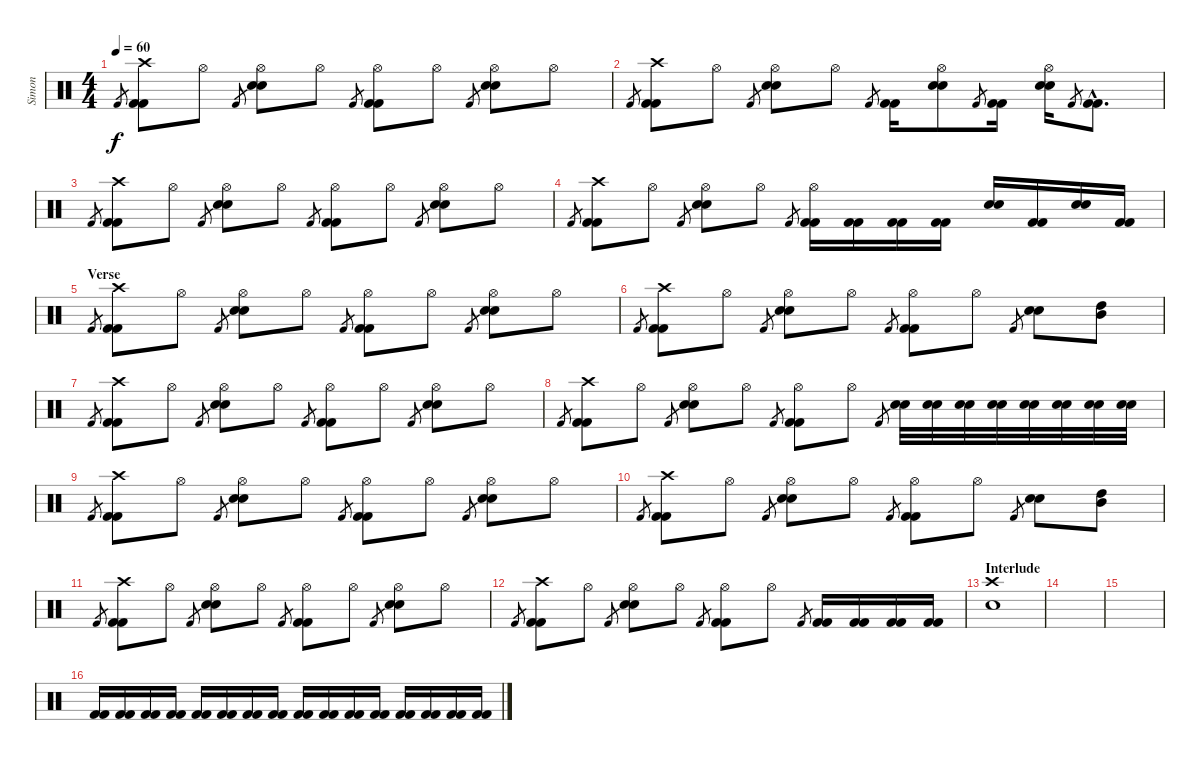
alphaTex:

\track ("Simon" "Simon") {instrument percussion}
\staff {score}
\articulation defaults
\ts (4 4)
\tempo 60
\clef neutral
\ks c "Kick (hit) 2".8{gr dy f}
("Crash high (hit)" "Kick (hit) 2" "Kick (hit) 2").8 "Hi-Hat (open)".8 "Kick (hit) 2".8{gr} ("Hi-Hat (open)" "Electric Snare (hit)" "Electric Snare (hit)").8 "Hi-Hat (open)".8 "Kick (hit) 2".8{gr} ("Hi-Hat (open)" "Kick (hit) 2" "Kick (hit) 2").8 "Hi-Hat (open)".8 "Kick (hit) 2".8{gr} ("Hi-Hat (open)" "Electric Snare (hit)" "Electric Snare (hit)").8 "Hi-Hat (open)".8 |
"Kick (hit) 2".8{gr} ("Crash high (hit)" "Kick (hit) 2" "Kick (hit) 2").8 "Hi-Hat (open)".8 "Kick (hit) 2".8{gr} ("Hi-Hat (open)" "Electric Snare (hit)" "Electric Snare (hit)").8 "Hi-Hat (open)".8 "Kick (hit) 2".8{gr} ("Kick (hit) 2" "Kick (hit) 2").16 ("Hi-Hat (open)" "Electric Snare (hit)" "Electric Snare (hit)").8 "Kick (hit) 2".8{gr} ("Kick (hit) 2" "Kick (hit) 2").16 ("Hi-Hat (open)" "Electric Snare (hit)" "Electric Snare (hit)").16 "Kick (hit) 2".8{gr} ("Kick (hit) 2"{hac} "Kick (hit) 2"{hac}).8{d} |
"Kick (hit) 2".8{gr} ("Crash high (hit)" "Kick (hit) 2" "Kick (hit) 2").8 "Hi-Hat (open)".8 "Kick (hit) 2".8{gr} ("Hi-Hat (open)" "Electric Snare (hit)" "Electric Snare (hit)").8 "Hi-Hat (open)".8 "Kick (hit) 2".8{gr} ("Hi-Hat (open)" "Kick (hit) 2" "Kick (hit) 2").8 "Hi-Hat (open)".8 "Kick (hit) 2".8{gr} ("Hi-Hat (open)" "Electric Snare (hit)" "Electric Snare (hit)").8 "Hi-Hat (open)".8 |
"Kick (hit) 2".8{gr} ("Crash high (hit)" "Kick (hit) 2" "Kick (hit) 2").8 "Hi-Hat (open)".8 "Kick (hit) 2".8{gr} ("Hi-Hat (open)" "Electric Snare (hit)" "Electric Snare (hit)").8 "Hi-Hat (open)".8 "Kick (hit) 2".8{gr} ("Hi-Hat (open)" "Kick (hit) 2" "Kick (hit) 2").16 ("Kick (hit) 2" "Kick (hit) 2").16 ("Kick (hit) 2" "Kick (hit) 2").16 ("Kick (hit) 2" "Kick (hit) 2").16 ("Electric Snare (hit)" "Electric Snare (hit)").16 ("Kick (hit) 2" "Kick (hit) 2").16 ("Electric Snare (hit)" "Electric Snare (hit)").16 ("Kick (hit) 2" "Kick (hit) 2").16 |
\section ("" "Verse")
"Kick (hit) 2".8{gr} ("Crash high (hit)" "Kick (hit) 2" "Kick (hit) 2").8 "Hi-Hat (open)".8 "Kick (hit) 2".8{gr} ("Hi-Hat (open)" "Electric Snare (hit)" "Electric Snare (hit)").8 "Hi-Hat (open)".8 "Kick (hit) 2".8{gr} ("Hi-Hat (open)" "Kick (hit) 2" "Kick (hit) 2").8 "Hi-Hat (open)".8 "Kick (hit) 2".8{gr} ("Hi-Hat (open)" "Electric Snare (hit)" "Electric Snare (hit)").8 "Hi-Hat (open)".8 |
"Kick (hit) 2".8{gr} ("Crash high (hit)" "Kick (hit) 2" "Kick (hit) 2").8 "Hi-Hat (open)".8 "Kick (hit) 2".8{gr} ("Hi-Hat (open)" "Electric Snare (hit)" "Electric Snare (hit)").8 "Hi-Hat (open)".8 "Kick (hit) 2".8{gr} ("Hi-Hat (open)" "Kick (hit) 2" "Kick (hit) 2").8 "Hi-Hat (open)".8 "Kick (hit) 2".8{gr} ("Electric Snare (hit)" "Electric Snare (hit)").8 ("High Tom (hit)" "Mid Tom (hit)").8 |
"Kick (hit) 2".8{gr} ("Crash high (hit)" "Kick (hit) 2" "Kick (hit) 2").8 "Hi-Hat (open)".8 "Kick (hit) 2".8{gr} ("Hi-Hat (open)" "Electric Snare (hit)" "Electric Snare (hit)").8 "Hi-Hat (open)".8 "Kick (hit) 2".8{gr} ("Hi-Hat (open)" "Kick (hit) 2" "Kick (hit) 2").8 "Hi-Hat (open)".8 "Kick (hit) 2".8{gr} ("Hi-Hat (open)" "Electric Snare (hit)" "Electric Snare (hit)").8 "Hi-Hat (open)".8 |
"Kick (hit) 2".8{gr} ("Crash high (hit)" "Kick (hit) 2" "Kick (hit) 2").8 "Hi-Hat (open)".8 "Kick (hit) 2".8{gr} ("Hi-Hat (open)" "Electric Snare (hit)" "Electric Snare (hit)").8 "Hi-Hat (open)".8 "Kick (hit) 2".8{gr} ("Hi-Hat (open)" "Kick (hit) 2" "Kick (hit) 2").8 "Hi-Hat (open)".8 "Kick (hit) 2".8{gr} ("Electric Snare (hit)" "Electric Snare (hit)").32 ("Electric Snare (hit)" "Electric Snare (hit)").32 ("Electric Snare (hit)" "Electric Snare (hit)").32 ("Electric Snare (hit)" "Electric Snare (hit)").32 ("Electric Snare (hit)" "Electric Snare (hit)").32 ("Electric Snare (hit)" "Electric Snare (hit)").32 ("Electric Snare (hit)" "Electric Snare (hit)").32 ("Electric Snare (hit)" "Electric Snare (hit)").32 |
"Kick (hit) 2".8{gr} ("Crash high (hit)" "Kick (hit) 2" "Kick (hit) 2").8 "Hi-Hat (open)".8 "Kick (hit) 2".8{gr} ("Hi-Hat (open)" "Electric Snare (hit)" "Electric Snare (hit)").8 "Hi-Hat (open)".8 "Kick (hit) 2".8{gr} ("Hi-Hat (open)" "Kick (hit) 2" "Kick (hit) 2").8 "Hi-Hat (open)".8 "Kick (hit) 2".8{gr} ("Hi-Hat (open)" "Electric Snare (hit)" "Electric Snare (hit)").8 "Hi-Hat (open)".8 |
"Kick (hit) 2".8{gr} ("Crash high (hit)" "Kick (hit) 2" "Kick (hit) 2").8 "Hi-Hat (open)".8 "Kick (hit) 2".8{gr} ("Hi-Hat (open)" "Electric Snare (hit)" "Electric Snare (hit)").8 "Hi-Hat (open)".8 "Kick (hit) 2".8{gr} ("Hi-Hat (open)" "Kick (hit) 2" "Kick (hit) 2").8 "Hi-Hat (open)".8 "Kick (hit) 2".8{gr} ("Electric Snare (hit)" "Electric Snare (hit)").8 ("High Tom (hit)" "Mid Tom (hit)").8 |
"Kick (hit) 2".8{gr} ("Crash high (hit)" "Kick (hit) 2" "Kick (hit) 2").8 "Hi-Hat (open)".8 "Kick (hit) 2".8{gr} ("Hi-Hat (open)" "Electric Snare (hit)" "Electric Snare (hit)").8 "Hi-Hat (open)".8 "Kick (hit) 2".8{gr} ("Hi-Hat (open)" "Kick (hit) 2" "Kick (hit) 2").8 "Hi-Hat (open)".8 "Kick (hit) 2".8{gr} ("Hi-Hat (open)" "Electric Snare (hit)" "Electric Snare (hit)").8 "Hi-Hat (open)".8 |
"Kick (hit) 2".8{gr} ("Crash high (hit)" "Kick (hit) 2" "Kick (hit) 2").8 "Hi-Hat (open)".8 "Kick (hit) 2".8{gr} ("Hi-Hat (open)" "Electric Snare (hit)" "Electric Snare (hit)").8 "Hi-Hat (open)".8 "Kick (hit) 2".8{gr} ("Hi-Hat (open)" "Kick (hit) 2" "Kick (hit) 2").8 "Hi-Hat (open)".8 "Kick (hit) 2".8{gr} ("Kick (hit) 2" "Kick (hit) 2").16 ("Kick (hit) 2" "Kick (hit) 2").16 ("Kick (hit) 2" "Kick (hit) 2").16 ("Kick (hit) 2" "Kick (hit) 2").16 |
\section ("" "Interlude")
("Crash high (hit)" "Electric Snare (hit)").1{volume 10} |
|
|
("Kick (hit) 2" "Kick (hit) 2").16 ("Kick (hit) 2" "Kick (hit) 2").16 ("Kick (hit) 2" "Kick (hit) 2").16 ("Kick (hit) 2" "Kick (hit) 2").16 ("Kick (hit) 2" "Kick (hit) 2").16 ("Kick (hit) 2" "Kick (hit) 2").16 ("Kick (hit) 2" "Kick (hit) 2").16 ("Kick (hit) 2" "Kick (hit) 2").16 ("Kick (hit) 2" "Kick (hit) 2").16 ("Kick (hit) 2" "Kick (hit) 2").16 ("Kick (hit) 2" "Kick (hit) 2").16 ("Kick (hit) 2" "Kick (hit) 2").16 ("Kick (hit) 2" "Kick (hit) 2").16 ("Kick (hit) 2" "Kick (hit) 2").16 ("Kick (hit) 2" "Kick (hit) 2").16 ("Kick (hit) 2" "Kick (hit) 2").16
